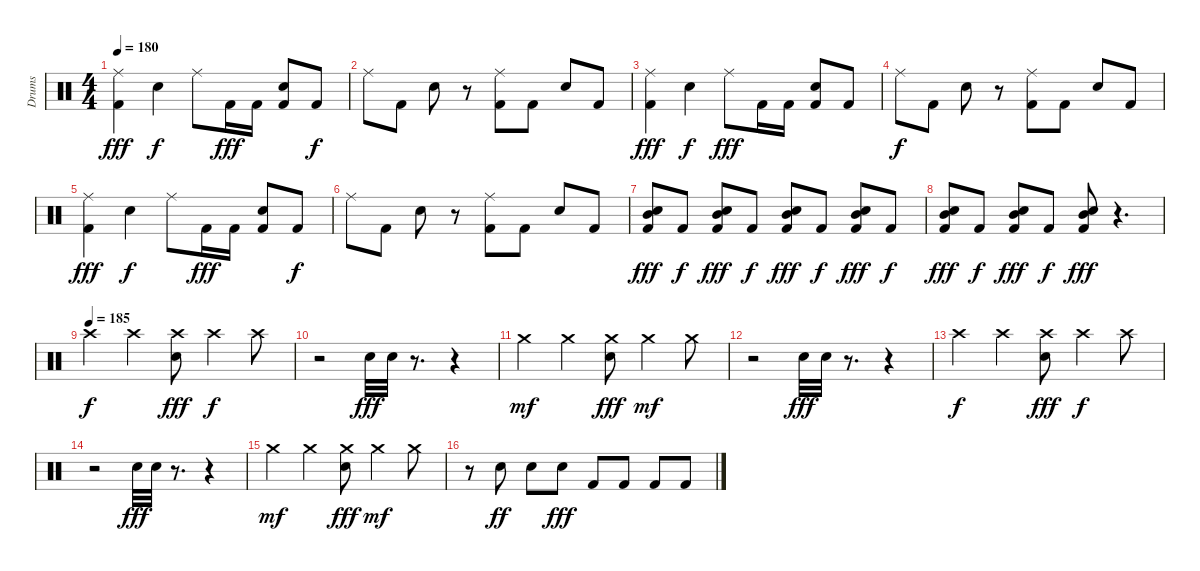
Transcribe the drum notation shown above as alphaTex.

\track ("Drums" "Drums") {instrument percussion}
\staff {score}
\articulation defaults
\ts (4 4)
\tempo 180
\clef neutral
\ks c
("Ride (middle)" "Kick (hit) 2").4{dy fff} "Snare (hit) 2".4{dy f} "Ride (middle)".8 "Kick (hit) 2".16{dy fff} "Kick (hit) 2".16 ("Snare (hit) 2" "Kick (hit) 2").8 "Kick (hit) 2".8{dy f} |
"Ride (middle)".8 "Kick (hit) 2".8 "Snare (hit) 2".8 r.8 ("Ride (middle)" "Kick (hit) 2").8 "Kick (hit) 2".8 "Snare (hit) 2".8 "Kick (hit) 2".8 |
("Ride (middle)" "Kick (hit) 2").4{dy fff} "Snare (hit) 2".4{dy f} "Ride (middle)".8{dy fff} "Kick (hit) 2".16 "Kick (hit) 2".16 ("Snare (hit) 2" "Kick (hit) 2").8 "Kick (hit) 2".8 |
"Ride (middle)".8{dy f} "Kick (hit) 2".8 "Snare (hit) 2".8 r.8 ("Ride (middle)" "Kick (hit) 2").8 "Kick (hit) 2".8 "Snare (hit) 2".8 "Kick (hit) 2".8 |
("Ride (middle)" "Kick (hit) 2").4{dy fff} "Snare (hit) 2".4{dy f} "Ride (middle)".8 "Kick (hit) 2".16{dy fff} "Kick (hit) 2".16 ("Snare (hit) 2" "Kick (hit) 2").8 "Kick (hit) 2".8{dy f} |
"Ride (middle)".8 "Kick (hit) 2".8 "Snare (hit) 2".8 r.8 ("Ride (middle)" "Kick (hit) 2").8 "Kick (hit) 2".8 "Snare (hit) 2".8 "Kick (hit) 2".8 |
("Mid Tom (hit)" "Snare (hit) 2" "Kick (hit) 2").8{dy fff} "Kick (hit) 2".8{dy f} ("Mid Tom (hit)" "Snare (hit) 2" "Kick (hit) 2").8{dy fff} "Kick (hit) 2".8{dy f} ("Mid Tom (hit)" "Snare (hit) 2" "Kick (hit) 2").8{dy fff} "Kick (hit) 2".8{dy f} ("Mid Tom (hit)" "Snare (hit) 2" "Kick (hit) 2").8{dy fff} "Kick (hit) 2".8{dy f} |
("Mid Tom (hit)" "Snare (hit) 2" "Kick (hit) 2").8{dy fff} "Kick (hit) 2".8{dy f} ("Mid Tom (hit)" "Snare (hit) 2" "Kick (hit) 2").8{dy fff} "Kick (hit) 2".8{dy f} ("Mid Tom (hit)" "Snare (hit) 2" "Kick (hit) 2").8{dy fff} r.4{d} |
\tempo (185)
"Crash high (hit)".4{dy f} "Crash high (hit)".4 ("Crash high (hit)" "Snare (hit) 2").8{dy fff} "Crash high (hit)".4{dy f} "Crash high (hit)".8 |
r.2 "Snare (hit) 2".32{dy fff} "Snare (hit) 2".32 r.8{d} r.4 |
"Crash medium (hit)".4{dy mf} "Crash medium (hit)".4 ("Crash medium (hit)" "Snare (hit) 2").8{dy fff} "Crash medium (hit)".4{dy mf} "Crash medium (hit)".8 |
r.2 "Snare (hit) 2".32{dy fff} "Snare (hit) 2".32 r.8{d} r.4 |
"Crash high (hit)".4{dy f} "Crash high (hit)".4 ("Crash high (hit)" "Snare (hit) 2").8{dy fff} "Crash high (hit)".4{dy f} "Crash high (hit)".8 |
r.2 "Snare (hit) 2".32{dy fff} "Snare (hit) 2".32 r.8{d} r.4 |
"Crash medium (hit)".4{dy mf} "Crash medium (hit)".4 ("Crash medium (hit)" "Snare (hit) 2").8{dy fff} "Crash medium (hit)".4{dy mf} "Crash medium (hit)".8 |
r.8 "Snare (hit) 2".8{dy ff} "Snare (hit) 2".8 "Snare (hit) 2".8{dy fff} "Kick (hit) 2".8 "Kick (hit) 2".8 "Kick (hit) 2".8 "Kick (hit) 2".8
